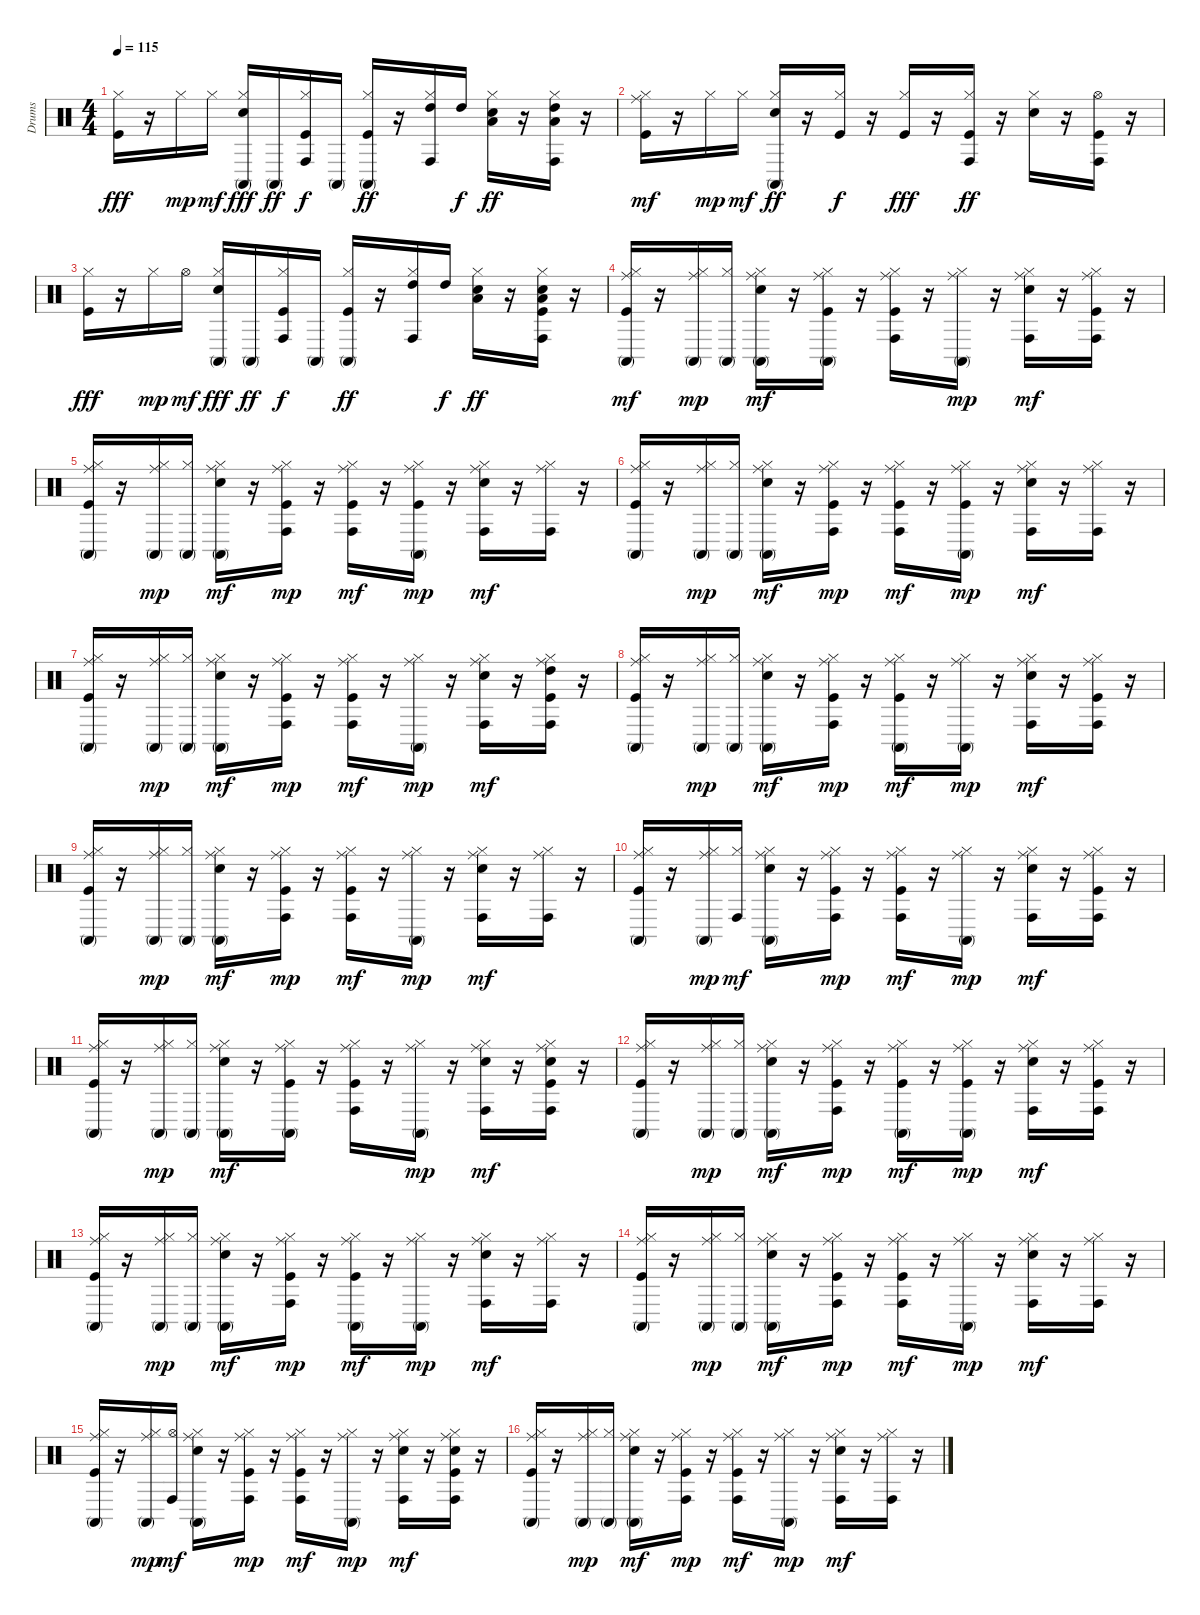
\track ("Drums" "Drums") {instrument percussion}
\staff {score}
\articulation defaults
\ts (4 4)
\tempo 115
\clef neutral
\ks c
("Kick (hit)" "Hi-Hat (closed)").16{dy fff} r.16 "Hi-Hat (closed)".16{dy mp} "Hi-Hat (closed)".16{dy mf} ("Snare (hit) 2" "Hi-Hat (closed)" "Conga high (mute)").16{dy fff} "Conga high (mute)".16{dy ff} ("Kick (hit)" "Hi-Hat (closed)" "Conga high (hit)").16{dy f} "Conga high (mute)".16 ("Kick (hit)" "Hi-Hat (closed)" "Conga high (mute)").16{dy ff} r.16 ("Hi-Hat (closed)" "High Tom (hit)" "Conga high (hit)").16 "High Tom (hit)".16{dy f} ("Snare (hit) 2" "Hi-Hat (closed)" "Low Tom (hit)").16{dy ff} r.16 ("Hi-Hat (closed)" "Low Floor Tom (hit)" "High Tom (hit)" "Conga high (hit)").16 r.16 |
("Kick (hit)" "Hi-Hat (closed)" "Ride (middle)").16{dy mf} r.16 "Hi-Hat (closed)".16{dy mp} "Hi-Hat (closed)".16{dy mf} ("Snare (hit) 2" "Hi-Hat (closed)" "Conga high (mute)").16{dy ff} r.16 ("Kick (hit)" "Hi-Hat (closed)").16{dy f} r.16 ("Kick (hit)" "Hi-Hat (closed)").16{dy fff} r.16 ("Kick (hit)" "Hi-Hat (closed)" "Conga high (hit)").16{dy ff} r.16 ("Snare (hit) 2" "Hi-Hat (closed)").16 r.16 ("Kick (hit)" "Hi-Hat (open)" "Conga high (hit)").16 r.16 |
("Kick (hit)" "Hi-Hat (closed)").16{dy fff} r.16 "Hi-Hat (closed)".16{dy mp} "Hi-Hat (open)".16{dy mf} ("Snare (hit) 2" "Hi-Hat (closed)" "Conga high (mute)").16{dy fff} "Conga high (mute)".16{dy ff} ("Kick (hit)" "Hi-Hat (closed)" "Conga high (hit)").16{dy f} "Conga high (mute)".16 ("Kick (hit)" "Hi-Hat (closed)" "Conga high (mute)").16{dy ff} r.16 ("Hi-Hat (closed)" "High Tom (hit)" "Conga high (hit)").16 "High Tom (hit)".16{dy f} ("Snare (hit) 2" "Hi-Hat (closed)" "Low Tom (hit)").16{dy ff} r.16 ("Kick (hit)" "Snare (hit) 2" "Hi-Hat (closed)" "Low Floor Tom (hit)" "Conga high (hit)").16 r.16 |
("Kick (hit)" "Hi-Hat (closed)" "Ride (middle)" "Conga high (mute)").16{dy mf} r.16 ("Hi-Hat (closed)" "Ride (middle)" "Conga high (mute)").16{dy mp} ("Hi-Hat (closed)" "Conga high (mute)").16 ("Snare (hit) 2" "Hi-Hat (closed)" "Ride (middle)" "Conga high (mute)").16{dy mf} r.16 ("Kick (hit)" "Hi-Hat (closed)" "Ride (middle)" "Conga high (mute)").16 r.16 ("Kick (hit)" "Hi-Hat (closed)" "Ride (middle)" "Conga high (hit)").16 r.16 ("Hi-Hat (closed)" "Ride (middle)" "Conga high (mute)").16{dy mp} r.16 ("Snare (hit) 2" "Hi-Hat (closed)" "Ride (middle)" "Conga high (hit)").16{dy mf} r.16 ("Kick (hit)" "Hi-Hat (closed)" "Ride (middle)" "Conga high (hit)").16 r.16 |
("Kick (hit)" "Hi-Hat (closed)" "Ride (middle)" "Conga high (mute)").16 r.16 ("Hi-Hat (closed)" "Ride (middle)" "Conga high (mute)").16{dy mp} ("Hi-Hat (closed)" "Conga high (mute)").16 ("Snare (hit) 2" "Hi-Hat (closed)" "Ride (middle)" "Conga high (mute)").16{dy mf} r.16 ("Kick (hit)" "Hi-Hat (closed)" "Ride (middle)" "Conga high (hit)").16{dy mp} r.16 ("Kick (hit)" "Hi-Hat (closed)" "Ride (middle)" "Conga high (hit)").16{dy mf} r.16 ("Kick (hit)" "Hi-Hat (closed)" "Ride (middle)" "Conga high (mute)").16{dy mp} r.16 ("Snare (hit) 2" "Hi-Hat (closed)" "Ride (middle)" "Conga high (hit)").16{dy mf} r.16 ("Hi-Hat (closed)" "Ride (middle)" "Conga high (hit)").16 r.16 |
("Kick (hit)" "Hi-Hat (closed)" "Ride (middle)" "Conga high (mute)").16 r.16 ("Hi-Hat (closed)" "Ride (middle)" "Conga high (mute)").16{dy mp} ("Hi-Hat (closed)" "Conga high (mute)").16 ("Snare (hit) 2" "Hi-Hat (closed)" "Ride (middle)" "Conga high (mute)").16{dy mf} r.16 ("Kick (hit)" "Hi-Hat (closed)" "Ride (middle)" "Conga high (hit)").16{dy mp} r.16 ("Kick (hit)" "Hi-Hat (closed)" "Ride (middle)" "Conga high (hit)").16{dy mf} r.16 ("Kick (hit)" "Hi-Hat (closed)" "Ride (middle)" "Conga high (mute)").16{dy mp} r.16 ("Snare (hit) 2" "Hi-Hat (closed)" "Ride (middle)" "Conga high (hit)").16{dy mf} r.16 ("Hi-Hat (closed)" "Ride (middle)" "Conga high (hit)").16 r.16 |
("Kick (hit)" "Hi-Hat (closed)" "Ride (middle)" "Conga high (mute)").16 r.16 ("Hi-Hat (closed)" "Ride (middle)" "Conga high (mute)").16{dy mp} ("Hi-Hat (closed)" "Conga high (mute)").16 ("Snare (hit) 2" "Hi-Hat (closed)" "Ride (middle)" "Conga high (mute)").16{dy mf} r.16 ("Kick (hit)" "Hi-Hat (closed)" "Ride (middle)" "Conga high (hit)").16{dy mp} r.16 ("Kick (hit)" "Hi-Hat (closed)" "Ride (middle)" "Conga high (hit)").16{dy mf} r.16 ("Hi-Hat (closed)" "Ride (middle)" "Conga high (mute)").16{dy mp} r.16 ("Snare (hit) 2" "Hi-Hat (closed)" "Ride (middle)" "Conga high (hit)").16{dy mf} r.16 ("Kick (hit)" "Hi-Hat (closed)" "Ride (middle)" "High Tom (hit)" "Conga high (hit)").16 r.16 |
("Kick (hit)" "Hi-Hat (closed)" "Ride (middle)" "Conga high (mute)").16 r.16 ("Hi-Hat (closed)" "Ride (middle)" "Conga high (mute)").16{dy mp} ("Hi-Hat (closed)" "Conga high (mute)").16 ("Snare (hit) 2" "Hi-Hat (closed)" "Ride (middle)" "Conga high (mute)").16{dy mf} r.16 ("Kick (hit)" "Hi-Hat (closed)" "Ride (middle)" "Conga high (hit)").16{dy mp} r.16 ("Kick (hit)" "Hi-Hat (closed)" "Ride (middle)" "Conga high (mute)").16{dy mf} r.16 ("Hi-Hat (closed)" "Ride (middle)" "Conga high (mute)").16{dy mp} r.16 ("Snare (hit) 2" "Hi-Hat (closed)" "Ride (middle)" "Conga high (hit)").16{dy mf} r.16 ("Kick (hit)" "Hi-Hat (closed)" "Ride (middle)" "Conga high (hit)").16 r.16 |
("Kick (hit)" "Hi-Hat (closed)" "Ride (middle)" "Conga high (mute)").16 r.16 ("Hi-Hat (closed)" "Ride (middle)" "Conga high (mute)").16{dy mp} ("Hi-Hat (closed)" "Conga high (mute)").16 ("Snare (hit) 2" "Hi-Hat (closed)" "Ride (middle)" "Conga high (mute)").16{dy mf} r.16 ("Kick (hit)" "Hi-Hat (closed)" "Ride (middle)" "Conga high (hit)").16{dy mp} r.16 ("Kick (hit)" "Hi-Hat (closed)" "Ride (middle)" "Conga high (hit)").16{dy mf} r.16 ("Hi-Hat (closed)" "Ride (middle)" "Conga high (mute)").16{dy mp} r.16 ("Snare (hit) 2" "Hi-Hat (closed)" "Ride (middle)" "Conga high (hit)").16{dy mf} r.16 ("Hi-Hat (closed)" "Ride (middle)" "Conga high (hit)").16 r.16 |
("Kick (hit)" "Hi-Hat (closed)" "Ride (middle)" "Conga high (mute)").16 r.16 ("Hi-Hat (closed)" "Ride (middle)" "Conga high (mute)").16{dy mp} ("Hi-Hat (closed)" "Conga high (hit)").16{dy mf} ("Snare (hit) 2" "Hi-Hat (closed)" "Ride (middle)" "Conga high (mute)").16 r.16 ("Kick (hit)" "Hi-Hat (closed)" "Ride (middle)" "Conga high (hit)").16{dy mp} r.16 ("Kick (hit)" "Hi-Hat (closed)" "Ride (middle)" "Conga high (hit)").16{dy mf} r.16 ("Hi-Hat (closed)" "Ride (middle)" "Conga high (mute)").16{dy mp} r.16 ("Snare (hit) 2" "Hi-Hat (closed)" "Ride (middle)" "Conga high (hit)").16{dy mf} r.16 ("Kick (hit)" "Hi-Hat (closed)" "Ride (middle)" "Conga high (hit)").16 r.16 |
("Kick (hit)" "Hi-Hat (closed)" "Ride (middle)" "Conga high (mute)").16 r.16 ("Hi-Hat (closed)" "Ride (middle)" "Conga high (mute)").16{dy mp} ("Hi-Hat (closed)" "Conga high (mute)").16 ("Snare (hit) 2" "Hi-Hat (closed)" "Ride (middle)" "Conga high (mute)").16{dy mf} r.16 ("Kick (hit)" "Hi-Hat (closed)" "Ride (middle)" "Conga high (mute)").16 r.16 ("Kick (hit)" "Hi-Hat (closed)" "Ride (middle)" "Conga high (hit)").16 r.16 ("Hi-Hat (closed)" "Ride (middle)" "Conga high (mute)").16{dy mp} r.16 ("Snare (hit) 2" "Hi-Hat (closed)" "Ride (middle)" "Conga high (hit)").16{dy mf} r.16 ("Kick (hit)" "Snare (hit) 2" "Hi-Hat (closed)" "Ride (middle)" "Conga high (hit)").16 r.16 |
("Kick (hit)" "Hi-Hat (closed)" "Ride (middle)" "Conga high (mute)").16 r.16 ("Hi-Hat (closed)" "Ride (middle)" "Conga high (mute)").16{dy mp} ("Hi-Hat (closed)" "Conga high (mute)").16 ("Snare (hit) 2" "Hi-Hat (closed)" "Ride (middle)" "Conga high (mute)").16{dy mf} r.16 ("Kick (hit)" "Hi-Hat (closed)" "Ride (middle)" "Conga high (hit)").16{dy mp} r.16 ("Kick (hit)" "Hi-Hat (closed)" "Ride (middle)" "Conga high (mute)").16{dy mf} r.16 ("Kick (hit)" "Hi-Hat (closed)" "Ride (middle)" "Conga high (mute)").16{dy mp} r.16 ("Snare (hit) 2" "Hi-Hat (closed)" "Ride (middle)" "Conga high (hit)").16{dy mf} r.16 ("Kick (hit)" "Hi-Hat (closed)" "Ride (middle)" "Conga high (hit)").16 r.16 |
("Kick (hit)" "Hi-Hat (closed)" "Ride (middle)" "Conga high (mute)").16 r.16 ("Hi-Hat (closed)" "Ride (middle)" "Conga high (mute)").16{dy mp} ("Hi-Hat (closed)" "Conga high (mute)").16 ("Snare (hit) 2" "Hi-Hat (closed)" "Ride (middle)" "Conga high (mute)").16{dy mf} r.16 ("Kick (hit)" "Hi-Hat (closed)" "Ride (middle)" "Conga high (hit)").16{dy mp} r.16 ("Kick (hit)" "Hi-Hat (closed)" "Ride (middle)" "Conga high (mute)").16{dy mf} r.16 ("Hi-Hat (closed)" "Ride (middle)" "Conga high (mute)").16{dy mp} r.16 ("Snare (hit) 2" "Hi-Hat (closed)" "Ride (middle)" "Conga high (hit)").16{dy mf} r.16 ("Hi-Hat (closed)" "Ride (middle)" "Conga high (hit)").16 r.16 |
("Kick (hit)" "Hi-Hat (closed)" "Ride (middle)" "Conga high (mute)").16 r.16 ("Hi-Hat (closed)" "Ride (middle)" "Conga high (mute)").16{dy mp} ("Hi-Hat (closed)" "Conga high (mute)").16 ("Snare (hit) 2" "Hi-Hat (closed)" "Ride (middle)" "Conga high (mute)").16{dy mf} r.16 ("Kick (hit)" "Hi-Hat (closed)" "Ride (middle)" "Conga high (hit)").16{dy mp} r.16 ("Kick (hit)" "Hi-Hat (closed)" "Ride (middle)" "Conga high (hit)").16{dy mf} r.16 ("Hi-Hat (closed)" "Ride (middle)" "Conga high (mute)").16{dy mp} r.16 ("Snare (hit) 2" "Hi-Hat (closed)" "Ride (middle)" "Conga high (hit)").16{dy mf} r.16 ("Hi-Hat (closed)" "Ride (middle)" "Conga high (hit)").16 r.16 |
("Kick (hit)" "Hi-Hat (closed)" "Ride (middle)" "Conga high (mute)").16 r.16 ("Hi-Hat (closed)" "Ride (middle)" "Conga high (mute)").16{dy mp} ("Hi-Hat (open)" "Conga high (hit)").16{dy mf} ("Snare (hit) 2" "Hi-Hat (closed)" "Ride (middle)" "Conga high (mute)").16 r.16 ("Kick (hit)" "Hi-Hat (closed)" "Ride (middle)" "Conga high (hit)").16{dy mp} r.16 ("Kick (hit)" "Hi-Hat (closed)" "Ride (middle)" "Conga high (hit)").16{dy mf} r.16 ("Hi-Hat (closed)" "Ride (middle)" "Conga high (mute)").16{dy mp} r.16 ("Snare (hit) 2" "Hi-Hat (closed)" "Ride (middle)" "Conga high (hit)").16{dy mf} r.16 ("Kick (hit)" "Snare (hit) 2" "Hi-Hat (closed)" "Ride (middle)" "Conga high (hit)").16 r.16 |
("Kick (hit)" "Hi-Hat (closed)" "Ride (middle)" "Conga high (mute)").16 r.16 ("Hi-Hat (closed)" "Ride (middle)" "Conga high (mute)").16{dy mp} ("Hi-Hat (closed)" "Conga high (mute)").16 ("Snare (hit) 2" "Hi-Hat (closed)" "Ride (middle)" "Conga high (mute)").16{dy mf} r.16 ("Kick (hit)" "Hi-Hat (closed)" "Ride (middle)" "Conga high (hit)").16{dy mp} r.16 ("Kick (hit)" "Hi-Hat (closed)" "Ride (middle)" "Conga high (hit)").16{dy mf} r.16 ("Hi-Hat (closed)" "Ride (middle)" "Conga high (mute)").16{dy mp} r.16 ("Snare (hit) 2" "Hi-Hat (closed)" "Ride (middle)" "Conga high (hit)").16{dy mf} r.16 ("Hi-Hat (closed)" "Ride (middle)" "Conga high (hit)").16 r.16
